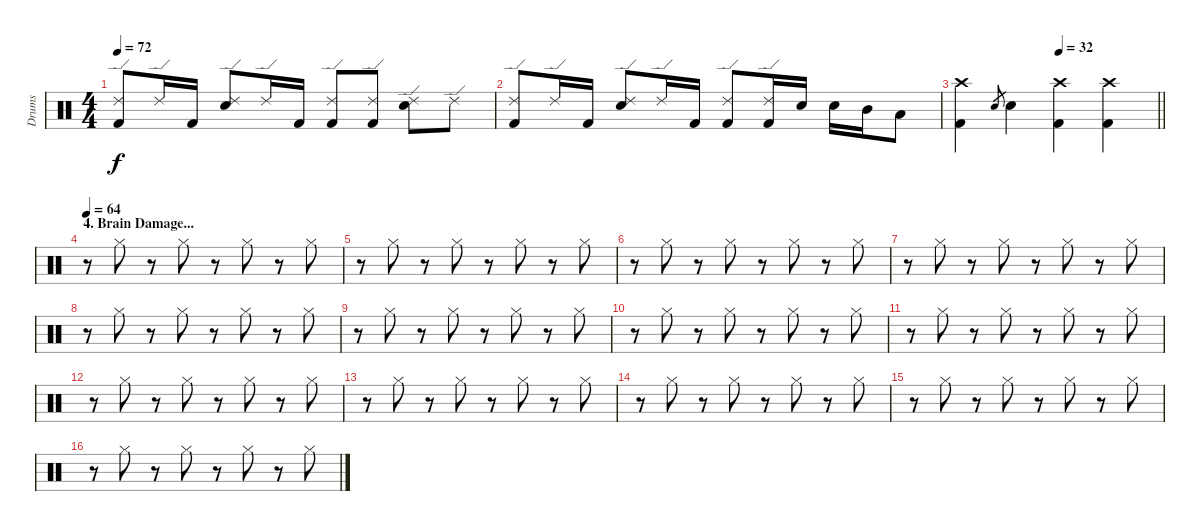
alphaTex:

\track ("Drums" "Drums") {instrument percussion}
\staff {score}
\articulation defaults
\ts (4 4)
\tempo 72
\clef neutral
\ks c
("Ride (edge) 2" "Kick (hit) 2").8{dy f} "Ride (edge) 2".16 "Kick (hit) 2".16 ("Ride (edge) 2" "Electric Snare (hit)").8 "Ride (edge) 2".16 "Kick (hit) 2".16 ("Ride (edge) 2" "Kick (hit) 2").8 ("Ride (edge) 2" "Kick (hit) 2").8 ("Ride (edge) 2" "Electric Snare (hit)").8 "Ride (edge) 2".8 |
("Ride (edge) 2" "Kick (hit) 2").8 "Ride (edge) 2".16 "Kick (hit) 2".16 ("Ride (edge) 2" "Electric Snare (hit)").8 "Ride (edge) 2".16 "Kick (hit) 2".16 ("Ride (edge) 2" "Kick (hit) 2").8 ("Ride (edge) 2" "Kick (hit) 2").16 "Electric Snare (hit)".16 "Electric Snare (hit)".16 "Mid Tom (hit)".16 "Low Tom (hit)".8 |
\tempo (32 0.5)
\barLineRight lightlight
("Crash high (hit)" "Kick (hit) 2").4 "Electric Snare (hit)".8{gr} "Electric Snare (hit)".4 ("Crash high (hit)" "Kick (hit) 2").4 ("Crash high (hit)" "Kick (hit) 2").4 |
\section ("" "4. Brain Damage...")
\tempo 64
r.8 "Hi-Hat (closed)".8 r.8 "Hi-Hat (closed)".8 r.8 "Hi-Hat (closed)".8 r.8 "Hi-Hat (closed)".8 |
r.8 "Hi-Hat (closed)".8 r.8 "Hi-Hat (closed)".8 r.8 "Hi-Hat (closed)".8 r.8 "Hi-Hat (closed)".8 |
r.8 "Hi-Hat (closed)".8 r.8 "Hi-Hat (closed)".8 r.8 "Hi-Hat (closed)".8 r.8 "Hi-Hat (closed)".8 |
r.8 "Hi-Hat (closed)".8 r.8 "Hi-Hat (closed)".8 r.8 "Hi-Hat (closed)".8 r.8 "Hi-Hat (closed)".8 |
r.8 "Hi-Hat (closed)".8 r.8 "Hi-Hat (closed)".8 r.8 "Hi-Hat (closed)".8 r.8 "Hi-Hat (closed)".8 |
r.8 "Hi-Hat (closed)".8 r.8 "Hi-Hat (closed)".8 r.8 "Hi-Hat (closed)".8 r.8 "Hi-Hat (closed)".8 |
r.8 "Hi-Hat (closed)".8 r.8 "Hi-Hat (closed)".8 r.8 "Hi-Hat (closed)".8 r.8 "Hi-Hat (closed)".8 |
r.8 "Hi-Hat (closed)".8 r.8 "Hi-Hat (closed)".8 r.8 "Hi-Hat (closed)".8 r.8 "Hi-Hat (closed)".8 |
r.8 "Hi-Hat (closed)".8 r.8 "Hi-Hat (closed)".8 r.8 "Hi-Hat (closed)".8 r.8 "Hi-Hat (closed)".8 |
r.8 "Hi-Hat (closed)".8 r.8 "Hi-Hat (closed)".8 r.8 "Hi-Hat (closed)".8 r.8 "Hi-Hat (closed)".8 |
r.8 "Hi-Hat (closed)".8 r.8 "Hi-Hat (closed)".8 r.8 "Hi-Hat (closed)".8 r.8 "Hi-Hat (closed)".8 |
r.8 "Hi-Hat (closed)".8 r.8 "Hi-Hat (closed)".8 r.8 "Hi-Hat (closed)".8 r.8 "Hi-Hat (closed)".8 |
r.8 "Hi-Hat (closed)".8 r.8 "Hi-Hat (closed)".8 r.8 "Hi-Hat (closed)".8 r.8 "Hi-Hat (closed)".8
